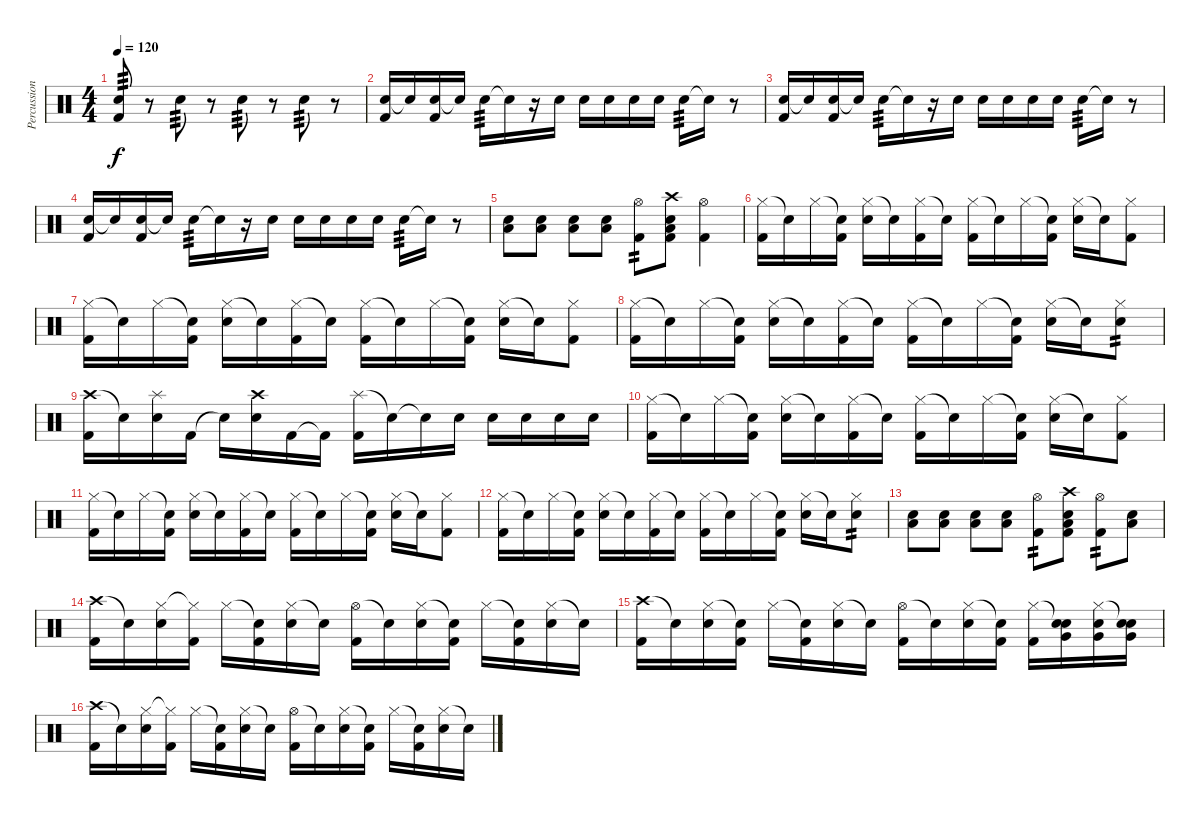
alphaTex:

\track ("Percussion" "Percussion") {instrument percussion}
\staff {score}
\articulation defaults
\ts (4 4)
\tempo 120
\clef neutral
\ks c
("Electric Snare (hit)" "Kick (hit) 2").8{tp 3 dy f} r.8 "Electric Snare (hit)".8{tp 3} r.8 "Electric Snare (hit)".8{tp 3} r.8 "Electric Snare (hit)".8{tp 3} r.8 |
("Electric Snare (hit)" "Kick (hit) 2").16 "Snare (hit)"{t}.16 ("Electric Snare (hit)" "Kick (hit) 2").16 "Snare (hit)"{t}.16 "Electric Snare (hit)".16{tp 3} "Snare (hit)"{t}.16 r.16 "Electric Snare (hit)".16 "Electric Snare (hit)".16 "Electric Snare (hit)".16 "Electric Snare (hit)".16 "Electric Snare (hit)".16 "Electric Snare (hit)".16{tp 3} "Snare (hit)"{t}.16 r.8 |
("Electric Snare (hit)" "Kick (hit) 2").16 "Snare (hit)"{t}.16 ("Electric Snare (hit)" "Kick (hit) 2").16 "Snare (hit)"{t}.16 "Electric Snare (hit)".16{tp 3} "Snare (hit)"{t}.16 r.16 "Electric Snare (hit)".16 "Electric Snare (hit)".16 "Electric Snare (hit)".16 "Electric Snare (hit)".16 "Electric Snare (hit)".16 "Electric Snare (hit)".16{tp 3} "Snare (hit)"{t}.16 r.8 |
("Electric Snare (hit)" "Kick (hit) 2").16 "Snare (hit)"{t}.16 ("Electric Snare (hit)" "Kick (hit) 2").16 "Snare (hit)"{t}.16 "Electric Snare (hit)".16{tp 3} "Snare (hit)"{t}.16 r.16 "Electric Snare (hit)".16 "Electric Snare (hit)".16 "Electric Snare (hit)".16 "Electric Snare (hit)".16 "Electric Snare (hit)".16 "Electric Snare (hit)".16{tp 3} "Snare (hit)"{t}.16 r.8 |
("Electric Snare (hit)" "Low Tom (hit)").8 ("Electric Snare (hit)" "Low Tom (hit)").8 ("Electric Snare (hit)" "Low Tom (hit)").8 ("Electric Snare (hit)" "Low Tom (hit)").8 ("Hi-Hat (open)" "Kick (hit) 2").8{tp 2} ("Crash high (hit)" "Electric Snare (hit)" "Low Tom (hit)" "Kick (hit) 2").8 ("Hi-Hat (open)" "Kick (hit) 2").4 |
("Hi-Hat (closed)" "Kick (hit) 2").16 "Snare (hit)"{t}.16 "Hi-Hat (closed)".16 ("Snare (hit)"{t} "Kick (hit) 2").16 ("Hi-Hat (closed)" "Electric Snare (hit)").16 "Snare (hit)"{t}.16 ("Hi-Hat (closed)" "Kick (hit) 2").16 "Snare (hit)"{t}.16 ("Hi-Hat (closed)" "Kick (hit) 2").16 "Snare (hit)"{t}.16 "Hi-Hat (closed)".16 ("Snare (hit)"{t} "Kick (hit) 2").16 ("Hi-Hat (closed)" "Electric Snare (hit)").16 "Snare (hit)"{t}.16 ("Hi-Hat (closed)" "Kick (hit) 2").8 |
("Hi-Hat (closed)" "Kick (hit) 2").16 "Snare (hit)"{t}.16 "Hi-Hat (closed)".16 ("Snare (hit)"{t} "Kick (hit) 2").16 ("Hi-Hat (closed)" "Electric Snare (hit)").16 "Snare (hit)"{t}.16 ("Hi-Hat (closed)" "Kick (hit) 2").16 "Snare (hit)"{t}.16 ("Hi-Hat (closed)" "Kick (hit) 2").16 "Snare (hit)"{t}.16 "Hi-Hat (closed)".16 ("Snare (hit)"{t} "Kick (hit) 2").16 ("Hi-Hat (closed)" "Electric Snare (hit)").16 "Snare (hit)"{t}.16 ("Hi-Hat (closed)" "Kick (hit) 2").8 |
("Hi-Hat (closed)" "Kick (hit) 2").16 "Snare (hit)"{t}.16 "Hi-Hat (closed)".16 ("Snare (hit)"{t} "Kick (hit) 2").16 ("Hi-Hat (closed)" "Electric Snare (hit)").16 "Snare (hit)"{t}.16 ("Hi-Hat (closed)" "Kick (hit) 2").16 "Snare (hit)"{t}.16 ("Hi-Hat (closed)" "Kick (hit) 2").16 "Snare (hit)"{t}.16 "Hi-Hat (closed)".16 ("Snare (hit)"{t} "Kick (hit) 2").16 ("Hi-Hat (closed)" "Electric Snare (hit)").16 "Snare (hit)"{t}.16 ("Hi-Hat (closed)" "Electric Snare (hit)").8{tp 2} |
("Crash high (hit)" "Kick (hit) 2").16 "Snare (hit)"{t}.16 ("Splash (hit)" "Electric Snare (hit)").16 "Kick (hit) 2".16 "Snare (hit)"{t}.16 ("Crash high (hit)" "Electric Snare (hit)").16 "Kick (hit) 2".16 "Kick (hit) 2"{t}.16 ("Splash (hit)" "Kick (hit) 2").16 "Snare (hit)"{t}.16 "Snare (hit)"{t}.16 "Electric Snare (hit)".16 "Electric Snare (hit)".16 "Electric Snare (hit)".16 "Electric Snare (hit)".16 "Electric Snare (hit)".16 |
("Hi-Hat (closed)" "Kick (hit) 2").16 "Snare (hit)"{t}.16 "Hi-Hat (closed)".16 ("Snare (hit)"{t} "Kick (hit) 2").16 ("Hi-Hat (closed)" "Electric Snare (hit)").16 "Snare (hit)"{t}.16 ("Hi-Hat (closed)" "Kick (hit) 2").16 "Snare (hit)"{t}.16 ("Hi-Hat (closed)" "Kick (hit) 2").16 "Snare (hit)"{t}.16 "Hi-Hat (closed)".16 ("Snare (hit)"{t} "Kick (hit) 2").16 ("Hi-Hat (closed)" "Electric Snare (hit)").16 "Snare (hit)"{t}.16 ("Hi-Hat (closed)" "Kick (hit) 2").8 |
("Hi-Hat (closed)" "Kick (hit) 2").16 "Snare (hit)"{t}.16 "Hi-Hat (closed)".16 ("Snare (hit)"{t} "Kick (hit) 2").16 ("Hi-Hat (closed)" "Electric Snare (hit)").16 "Snare (hit)"{t}.16 ("Hi-Hat (closed)" "Kick (hit) 2").16 "Snare (hit)"{t}.16 ("Hi-Hat (closed)" "Kick (hit) 2").16 "Snare (hit)"{t}.16 "Hi-Hat (closed)".16 ("Snare (hit)"{t} "Kick (hit) 2").16 ("Hi-Hat (closed)" "Electric Snare (hit)").16 "Snare (hit)"{t}.16 ("Hi-Hat (closed)" "Kick (hit) 2").8 |
("Hi-Hat (closed)" "Kick (hit) 2").16 "Snare (hit)"{t}.16 "Hi-Hat (closed)".16 ("Snare (hit)"{t} "Kick (hit) 2").16 ("Hi-Hat (closed)" "Electric Snare (hit)").16 "Snare (hit)"{t}.16 ("Hi-Hat (closed)" "Kick (hit) 2").16 "Snare (hit)"{t}.16 ("Hi-Hat (closed)" "Kick (hit) 2").16 "Snare (hit)"{t}.16 "Hi-Hat (closed)".16 ("Snare (hit)"{t} "Kick (hit) 2").16 ("Hi-Hat (closed)" "Electric Snare (hit)").16 "Snare (hit)"{t}.16 ("Hi-Hat (closed)" "Electric Snare (hit)").8{tp 2} |
("Electric Snare (hit)" "Low Tom (hit)").8 ("Electric Snare (hit)" "Low Tom (hit)").8 ("Electric Snare (hit)" "Low Tom (hit)").8 ("Electric Snare (hit)" "Low Tom (hit)").8 ("Hi-Hat (open)" "Kick (hit) 2").8{tp 2} ("Crash high (hit)" "Electric Snare (hit)" "Low Tom (hit)" "Kick (hit) 2").8 ("Hi-Hat (open)" "Kick (hit) 2").8{tp 2} ("Electric Snare (hit)" "Low Tom (hit)").8 |
("Crash high (hit)" "Kick (hit) 2").16 "Snare (hit)"{t}.16 ("Hi-Hat (closed)" "Electric Snare (hit)").16 ("Hi-Hat (closed)"{t} "Kick (hit) 2").16 "Hi-Hat (closed)".16 ("Snare (hit)"{t} "Kick (hit) 2").16 ("Hi-Hat (closed)" "Electric Snare (hit)").16 "Snare (hit)"{t}.16 ("Hi-Hat (open)" "Kick (hit) 2").16 "Snare (hit)"{t}.16 ("Hi-Hat (closed)" "Electric Snare (hit)").16 ("Snare (hit)"{t} "Kick (hit) 2").16 "Hi-Hat (closed)".16 ("Snare (hit)"{t} "Kick (hit) 2").16 ("Hi-Hat (closed)" "Electric Snare (hit)").16 "Snare (hit)"{t}.16 |
("Crash high (hit)" "Kick (hit) 2").16 "Snare (hit)"{t}.16 ("Hi-Hat (closed)" "Electric Snare (hit)").16 ("Snare (hit)"{t} "Kick (hit) 2").16 "Hi-Hat (closed)".16 ("Snare (hit)"{t} "Kick (hit) 2").16 ("Hi-Hat (closed)" "Electric Snare (hit)").16 "Snare (hit)"{t}.16 ("Hi-Hat (open)" "Kick (hit) 2").16 "Snare (hit)"{t}.16 ("Hi-Hat (closed)" "Electric Snare (hit)").16 ("Snare (hit)"{t} "Kick (hit) 2").16 ("Hi-Hat (closed)" "Kick (hit) 2").16 ("Snare (hit)"{t} "Electric Snare (hit)" "Very Low Tom (hit)").16 ("Hi-Hat (closed)" "Electric Snare (hit)" "Very Low Tom (hit)").16 ("Snare (hit)"{t} "Electric Snare (hit)" "Very Low Tom (hit)").16 |
("Crash high (hit)" "Kick (hit) 2").16 "Snare (hit)"{t}.16 ("Hi-Hat (closed)" "Electric Snare (hit)").16 ("Hi-Hat (closed)"{t} "Kick (hit) 2").16 "Hi-Hat (closed)".16 ("Snare (hit)"{t} "Kick (hit) 2").16 ("Hi-Hat (closed)" "Electric Snare (hit)").16 "Snare (hit)"{t}.16 ("Hi-Hat (open)" "Kick (hit) 2").16 "Snare (hit)"{t}.16 ("Hi-Hat (closed)" "Electric Snare (hit)").16 ("Snare (hit)"{t} "Kick (hit) 2").16 "Hi-Hat (closed)".16 ("Snare (hit)"{t} "Kick (hit) 2").16 ("Hi-Hat (closed)" "Electric Snare (hit)").16 "Snare (hit)"{t}.16
